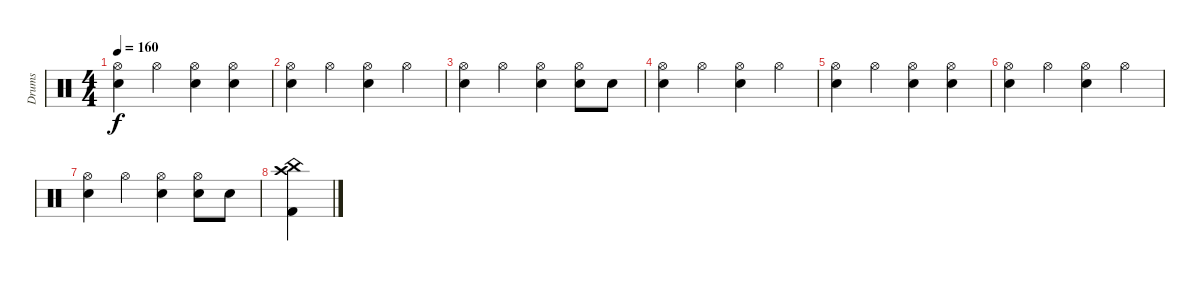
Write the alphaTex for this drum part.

\track ("Drums" "Drums") {instrument percussion}
\staff {score}
\articulation defaults
\ts (4 4)
\tempo 160
\clef neutral
\ks c
("Hi-Hat (open)" "Electric Snare (hit)").4{dy f} "Hi-Hat (open)".4 ("Hi-Hat (open)" "Electric Snare (hit)").4 ("Hi-Hat (open)" "Electric Snare (hit)").4 |
("Hi-Hat (open)" "Electric Snare (hit)").4 "Hi-Hat (open)".4 ("Hi-Hat (open)" "Electric Snare (hit)").4 "Hi-Hat (open)".4 |
("Hi-Hat (open)" "Electric Snare (hit)").4 "Hi-Hat (open)".4 ("Hi-Hat (open)" "Electric Snare (hit)").4 ("Hi-Hat (open)" "Electric Snare (hit)").8 "Electric Snare (hit)".8 |
("Hi-Hat (open)" "Electric Snare (hit)").4 "Hi-Hat (open)".4 ("Hi-Hat (open)" "Electric Snare (hit)").4 "Hi-Hat (open)".4 |
("Hi-Hat (open)" "Electric Snare (hit)").4 "Hi-Hat (open)".4 ("Hi-Hat (open)" "Electric Snare (hit)").4 ("Hi-Hat (open)" "Electric Snare (hit)").4 |
("Hi-Hat (open)" "Electric Snare (hit)").4 "Hi-Hat (open)".4 ("Hi-Hat (open)" "Electric Snare (hit)").4 "Hi-Hat (open)".4 |
("Hi-Hat (open)" "Electric Snare (hit)").4 "Hi-Hat (open)".4 ("Hi-Hat (open)" "Electric Snare (hit)").4 ("Hi-Hat (open)" "Electric Snare (hit)").8 "Electric Snare (hit)".8 |
("Kick (hit) 2" "Crash high (hit)" "China (hit)").4
